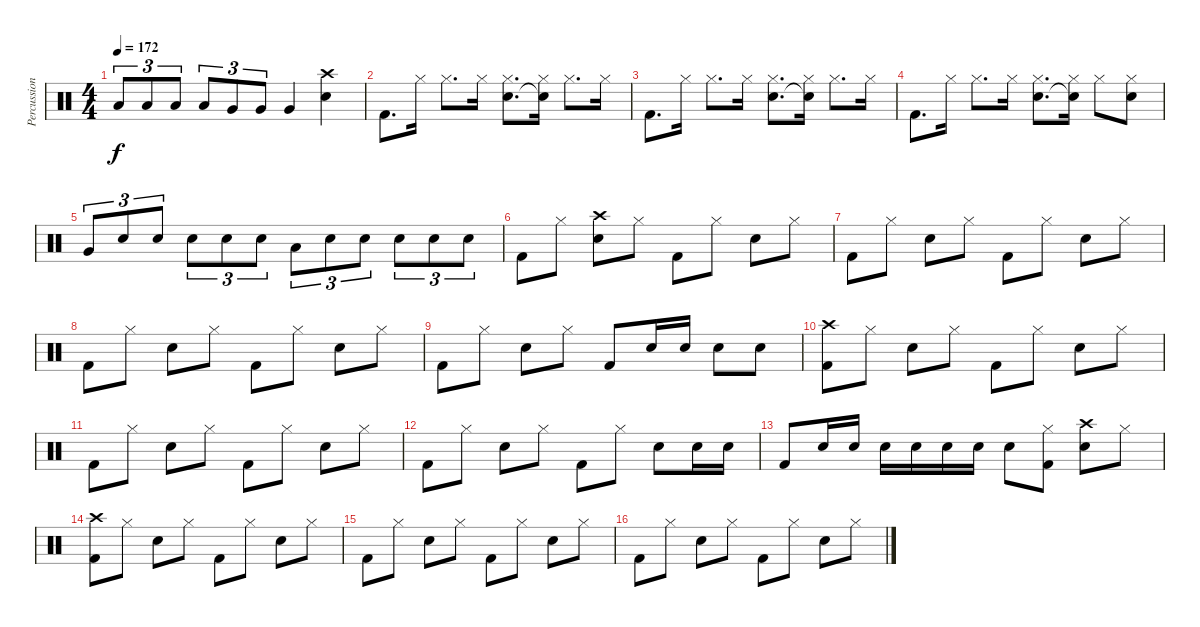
\track ("Percussion" "Percussion") {instrument percussion}
\staff {score}
\articulation defaults
\ts (4 4)
\tempo 172
\clef neutral
\ks c "Low Tom (hit)".8{tu (3 2) dy f} "Low Tom (hit)".8{tu (3 2)} "Low Tom (hit)".8{tu (3 2)} "Low Tom (hit)".8{tu (3 2)} "Very Low Tom (hit)".8{tu (3 2)} "Very Low Tom (hit)".8{tu (3 2)} "Very Low Tom (hit)".4
("Crash high (hit)" "Snare (hit) 2").4 |
"Kick (hit) 2".8{d} "Hi-Hat (closed)".16 "Hi-Hat (closed)".8{d} "Hi-Hat (closed)".16 ("Hi-Hat (closed)" "Snare (hit) 2").8{d} ("Hi-Hat (closed)" "Snare (hit) 2"{t}).16 "Hi-Hat (closed)".8{d} "Hi-Hat (closed)".16 |
"Kick (hit) 2".8{d} "Hi-Hat (closed)".16 "Hi-Hat (closed)".8{d} "Hi-Hat (closed)".16 ("Hi-Hat (closed)" "Snare (hit) 2").8{d} ("Hi-Hat (closed)" "Snare (hit) 2"{t}).16 "Hi-Hat (closed)".8{d} "Hi-Hat (closed)".16 |
"Kick (hit) 2".8{d} "Hi-Hat (closed)".16 "Hi-Hat (closed)".8{d} "Hi-Hat (closed)".16 ("Hi-Hat (closed)" "Snare (hit) 2").8{d} ("Hi-Hat (closed)" "Snare (hit) 2"{t}).16 "Hi-Hat (closed)".8 ("Hi-Hat (closed)" "Snare (hit) 2").8 |
"Very Low Tom (hit)".8{tu (3 2)} "Snare (hit) 2".8{tu (3 2)} "Snare (hit) 2".8{tu (3 2)} "Snare (hit) 2".8{tu (3 2)} "Snare (hit) 2".8{tu (3 2)} "Snare (hit) 2".8{tu (3 2)} "Low Tom (hit)".8{tu (3 2)} "Snare (hit) 2".8{tu (3 2)} "Snare (hit) 2".8{tu (3 2)} "Snare (hit) 2".8{tu (3 2)} "Snare (hit) 2".8{tu (3 2)} "Snare (hit) 2".8{tu (3 2)} |
"Kick (hit) 2".8 "Hi-Hat (closed)".8 ("Crash high (hit)" "Snare (hit) 2").8 "Hi-Hat (closed)".8 "Kick (hit) 2".8 "Hi-Hat (closed)".8 "Snare (hit) 2".8 "Hi-Hat (closed)".8 |
"Kick (hit) 2".8 "Hi-Hat (closed)".8 "Snare (hit) 2".8 "Hi-Hat (closed)".8 "Kick (hit) 2".8 "Hi-Hat (closed)".8 "Snare (hit) 2".8 "Hi-Hat (closed)".8 |
"Kick (hit) 2".8 "Hi-Hat (closed)".8 "Snare (hit) 2".8 "Hi-Hat (closed)".8 "Kick (hit) 2".8 "Hi-Hat (closed)".8 "Snare (hit) 2".8 "Hi-Hat (closed)".8 |
"Kick (hit) 2".8 "Hi-Hat (closed)".8 "Snare (hit) 2".8 "Hi-Hat (closed)".8 "Kick (hit) 2".8 "Snare (hit) 2".16 "Snare (hit) 2".16 "Snare (hit) 2".8 "Snare (hit) 2".8 |
("Crash high (hit)" "Kick (hit) 2").8 "Hi-Hat (closed)".8 "Snare (hit) 2".8 "Hi-Hat (closed)".8 "Kick (hit) 2".8 "Hi-Hat (closed)".8 "Snare (hit) 2".8 "Hi-Hat (closed)".8 |
"Kick (hit) 2".8 "Hi-Hat (closed)".8 "Snare (hit) 2".8 "Hi-Hat (closed)".8 "Kick (hit) 2".8 "Hi-Hat (closed)".8 "Snare (hit) 2".8 "Hi-Hat (closed)".8 |
"Kick (hit) 2".8 "Hi-Hat (closed)".8 "Snare (hit) 2".8 "Hi-Hat (closed)".8 "Kick (hit) 2".8 "Hi-Hat (closed)".8 "Snare (hit) 2".8 "Snare (hit) 2".16 "Snare (hit) 2".16 |
"Kick (hit) 2".8 "Snare (hit) 2".16 "Snare (hit) 2".16 "Snare (hit) 2".16 "Snare (hit) 2".16 "Snare (hit) 2".16 "Snare (hit) 2".16 "Snare (hit) 2".8 ("Hi-Hat (closed)" "Kick (hit) 2").8 ("Crash high (hit)" "Snare (hit) 2").8 "Hi-Hat (closed)".8 |
("Crash high (hit)" "Kick (hit) 2").8 "Hi-Hat (closed)".8 "Snare (hit) 2".8 "Hi-Hat (closed)".8 "Kick (hit) 2".8 "Hi-Hat (closed)".8 "Snare (hit) 2".8 "Hi-Hat (closed)".8 |
"Kick (hit) 2".8 "Hi-Hat (closed)".8 "Snare (hit) 2".8 "Hi-Hat (closed)".8 "Kick (hit) 2".8 "Hi-Hat (closed)".8 "Snare (hit) 2".8 "Hi-Hat (closed)".8 |
"Kick (hit) 2".8 "Hi-Hat (closed)".8 "Snare (hit) 2".8 "Hi-Hat (closed)".8 "Kick (hit) 2".8 "Hi-Hat (closed)".8 "Snare (hit) 2".8 "Hi-Hat (closed)".8
